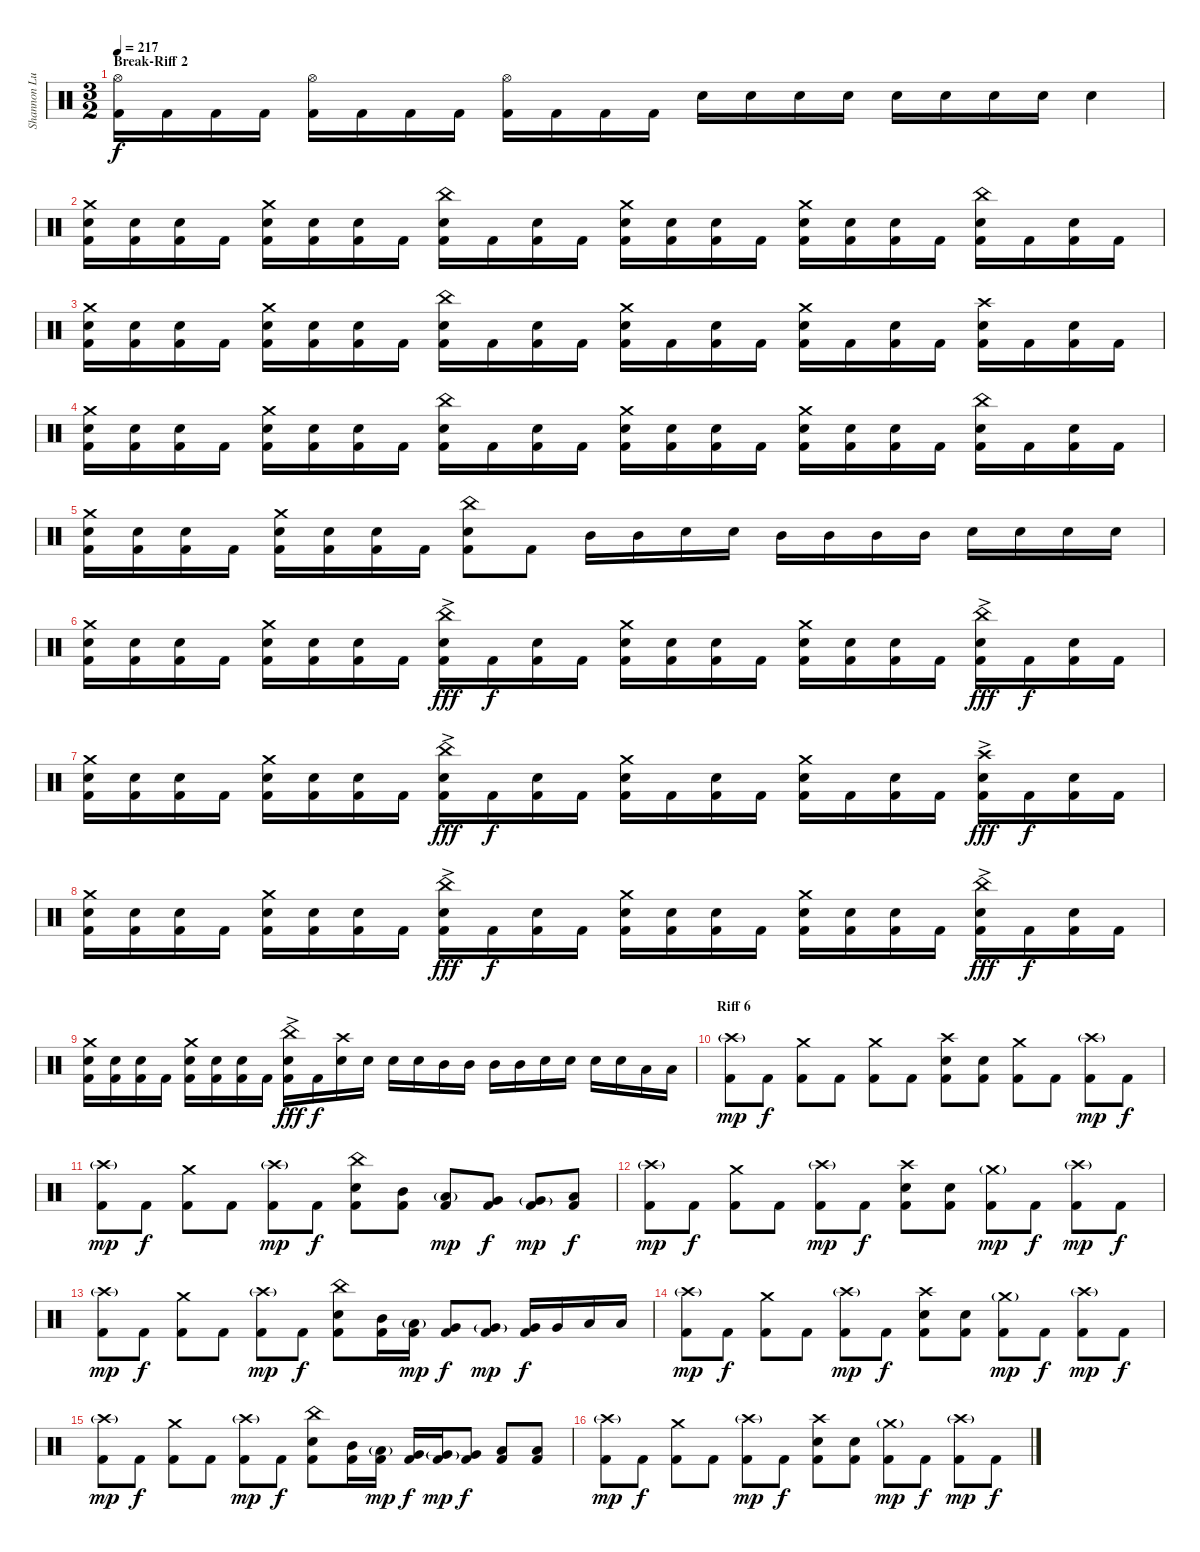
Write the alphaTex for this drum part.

\track ("Shannon Lucas (Drums)" "Shannon Lu") {instrument percussion}
\staff {score}
\articulation defaults
\ts (3 2)
\section ("" "Break-Riff 2")
\tempo 217
\clef neutral
\ks c
("Hi-Hat (open)" "Kick (hit) 2").16{dy f} "Kick (hit) 2".16 "Kick (hit) 2".16 "Kick (hit) 2".16 ("Hi-Hat (open)" "Kick (hit) 2").16 "Kick (hit) 2".16 "Kick (hit) 2".16 "Kick (hit) 2".16 ("Hi-Hat (open)" "Kick (hit) 2").16 "Kick (hit) 2".16 "Kick (hit) 2".16 "Kick (hit) 2".16 "Snare (hit) 2".16 "Snare (hit) 2".16 "Snare (hit) 2".16 "Snare (hit) 2".16 "Snare (hit) 2".16 "Snare (hit) 2".16 "Snare (hit) 2".16 "Snare (hit) 2".16 "Snare (hit) 2".4 |
("Crash medium (hit)" "Snare (hit) 2" "Kick (hit) 2").16 ("Snare (hit) 2" "Kick (hit) 2").16 ("Snare (hit) 2" "Kick (hit) 2").16 "Kick (hit) 2".16 ("Crash medium (hit)" "Snare (hit) 2" "Kick (hit) 2").16 ("Snare (hit) 2" "Kick (hit) 2").16 ("Snare (hit) 2" "Kick (hit) 2").16 "Kick (hit) 2".16 ("China (hit)" "Snare (hit) 2" "Kick (hit) 2").16 "Kick (hit) 2".16 ("Snare (hit) 2" "Kick (hit) 2").16 "Kick (hit) 2".16 ("Crash medium (hit)" "Snare (hit) 2" "Kick (hit) 2").16 ("Snare (hit) 2" "Kick (hit) 2").16 ("Snare (hit) 2" "Kick (hit) 2").16 "Kick (hit) 2".16 ("Crash medium (hit)" "Snare (hit) 2" "Kick (hit) 2").16 ("Snare (hit) 2" "Kick (hit) 2").16 ("Snare (hit) 2" "Kick (hit) 2").16 "Kick (hit) 2".16 ("China (hit)" "Snare (hit) 2" "Kick (hit) 2").16 "Kick (hit) 2".16 ("Snare (hit) 2" "Kick (hit) 2").16 "Kick (hit) 2".16 |
("Crash medium (hit)" "Snare (hit) 2" "Kick (hit) 2").16 ("Snare (hit) 2" "Kick (hit) 2").16 ("Snare (hit) 2" "Kick (hit) 2").16 "Kick (hit) 2".16 ("Crash medium (hit)" "Snare (hit) 2" "Kick (hit) 2").16 ("Snare (hit) 2" "Kick (hit) 2").16 ("Snare (hit) 2" "Kick (hit) 2").16 "Kick (hit) 2".16 ("China (hit)" "Snare (hit) 2" "Kick (hit) 2").16 "Kick (hit) 2".16 ("Snare (hit) 2" "Kick (hit) 2").16 "Kick (hit) 2".16 ("Crash medium (hit)" "Snare (hit) 2" "Kick (hit) 2").16 "Kick (hit) 2".16 ("Snare (hit) 2" "Kick (hit) 2").16 "Kick (hit) 2".16 ("Crash medium (hit)" "Snare (hit) 2" "Kick (hit) 2").16 "Kick (hit) 2".16 ("Snare (hit) 2" "Kick (hit) 2").16 "Kick (hit) 2".16 ("Crash high (hit)" "Snare (hit) 2" "Kick (hit) 2").16 "Kick (hit) 2".16 ("Snare (hit) 2" "Kick (hit) 2").16 "Kick (hit) 2".16 |
("Crash medium (hit)" "Snare (hit) 2" "Kick (hit) 2").16 ("Snare (hit) 2" "Kick (hit) 2").16 ("Snare (hit) 2" "Kick (hit) 2").16 "Kick (hit) 2".16 ("Crash medium (hit)" "Snare (hit) 2" "Kick (hit) 2").16 ("Snare (hit) 2" "Kick (hit) 2").16 ("Snare (hit) 2" "Kick (hit) 2").16 "Kick (hit) 2".16 ("China (hit)" "Snare (hit) 2" "Kick (hit) 2").16 "Kick (hit) 2".16 ("Snare (hit) 2" "Kick (hit) 2").16 "Kick (hit) 2".16 ("Crash medium (hit)" "Snare (hit) 2" "Kick (hit) 2").16 ("Snare (hit) 2" "Kick (hit) 2").16 ("Snare (hit) 2" "Kick (hit) 2").16 "Kick (hit) 2".16 ("Crash medium (hit)" "Snare (hit) 2" "Kick (hit) 2").16 ("Snare (hit) 2" "Kick (hit) 2").16 ("Snare (hit) 2" "Kick (hit) 2").16 "Kick (hit) 2".16 ("China (hit)" "Snare (hit) 2" "Kick (hit) 2").16 "Kick (hit) 2".16 ("Snare (hit) 2" "Kick (hit) 2").16 "Kick (hit) 2".16 |
("Crash medium (hit)" "Snare (hit) 2" "Kick (hit) 2").16 ("Snare (hit) 2" "Kick (hit) 2").16 ("Snare (hit) 2" "Kick (hit) 2").16 "Kick (hit) 2".16 ("Crash medium (hit)" "Snare (hit) 2" "Kick (hit) 2").16 ("Snare (hit) 2" "Kick (hit) 2").16 ("Snare (hit) 2" "Kick (hit) 2").16 "Kick (hit) 2".16 ("China (hit)" "Snare (hit) 2" "Kick (hit) 2").8 "Kick (hit) 2".8 "Mid Tom (hit)".16 "Mid Tom (hit)".16 "Snare (hit) 2".16 "Snare (hit) 2".16 "Mid Tom (hit)".16 "Mid Tom (hit)".16 "Mid Tom (hit)".16 "Mid Tom (hit)".16 "Snare (hit) 2".16 "Snare (hit) 2".16 "Snare (hit) 2".16 "Snare (hit) 2".16 |
("Crash medium (hit)" "Snare (hit) 2" "Kick (hit) 2").16 ("Snare (hit) 2" "Kick (hit) 2").16 ("Snare (hit) 2" "Kick (hit) 2").16 "Kick (hit) 2".16 ("Crash medium (hit)" "Snare (hit) 2" "Kick (hit) 2").16 ("Snare (hit) 2" "Kick (hit) 2").16 ("Snare (hit) 2" "Kick (hit) 2").16 "Kick (hit) 2".16 ("China (hit)"{ac} "Snare (hit) 2"{ac} "Kick (hit) 2"{ac}).16{dy fff} "Kick (hit) 2".16{dy f} ("Snare (hit) 2" "Kick (hit) 2").16 "Kick (hit) 2".16 ("Crash medium (hit)" "Snare (hit) 2" "Kick (hit) 2").16 ("Snare (hit) 2" "Kick (hit) 2").16 ("Snare (hit) 2" "Kick (hit) 2").16 "Kick (hit) 2".16 ("Crash medium (hit)" "Snare (hit) 2" "Kick (hit) 2").16 ("Snare (hit) 2" "Kick (hit) 2").16 ("Snare (hit) 2" "Kick (hit) 2").16 "Kick (hit) 2".16 ("China (hit)"{ac} "Snare (hit) 2"{ac} "Kick (hit) 2"{ac}).16{dy fff} "Kick (hit) 2".16{dy f} ("Snare (hit) 2" "Kick (hit) 2").16 "Kick (hit) 2".16 |
("Crash medium (hit)" "Snare (hit) 2" "Kick (hit) 2").16 ("Snare (hit) 2" "Kick (hit) 2").16 ("Snare (hit) 2" "Kick (hit) 2").16 "Kick (hit) 2".16 ("Crash medium (hit)" "Snare (hit) 2" "Kick (hit) 2").16 ("Snare (hit) 2" "Kick (hit) 2").16 ("Snare (hit) 2" "Kick (hit) 2").16 "Kick (hit) 2".16 ("China (hit)"{ac} "Snare (hit) 2"{ac} "Kick (hit) 2"{ac}).16{dy fff} "Kick (hit) 2".16{dy f} ("Snare (hit) 2" "Kick (hit) 2").16 "Kick (hit) 2".16 ("Crash medium (hit)" "Snare (hit) 2" "Kick (hit) 2").16 "Kick (hit) 2".16 ("Snare (hit) 2" "Kick (hit) 2").16 "Kick (hit) 2".16 ("Crash medium (hit)" "Snare (hit) 2" "Kick (hit) 2").16 "Kick (hit) 2".16 ("Snare (hit) 2" "Kick (hit) 2").16 "Kick (hit) 2".16 ("Crash high (hit)"{ac} "Snare (hit) 2"{ac} "Kick (hit) 2"{ac}).16{dy fff} "Kick (hit) 2".16{dy f} ("Snare (hit) 2" "Kick (hit) 2").16 "Kick (hit) 2".16 |
("Crash medium (hit)" "Snare (hit) 2" "Kick (hit) 2").16 ("Snare (hit) 2" "Kick (hit) 2").16 ("Snare (hit) 2" "Kick (hit) 2").16 "Kick (hit) 2".16 ("Crash medium (hit)" "Snare (hit) 2" "Kick (hit) 2").16 ("Snare (hit) 2" "Kick (hit) 2").16 ("Snare (hit) 2" "Kick (hit) 2").16 "Kick (hit) 2".16 ("China (hit)"{ac} "Snare (hit) 2"{ac} "Kick (hit) 2"{ac}).16{dy fff} "Kick (hit) 2".16{dy f} ("Snare (hit) 2" "Kick (hit) 2").16 "Kick (hit) 2".16 ("Crash medium (hit)" "Snare (hit) 2" "Kick (hit) 2").16 ("Snare (hit) 2" "Kick (hit) 2").16 ("Snare (hit) 2" "Kick (hit) 2").16 "Kick (hit) 2".16 ("Crash medium (hit)" "Snare (hit) 2" "Kick (hit) 2").16 ("Snare (hit) 2" "Kick (hit) 2").16 ("Snare (hit) 2" "Kick (hit) 2").16 "Kick (hit) 2".16 ("China (hit)"{ac} "Snare (hit) 2"{ac} "Kick (hit) 2"{ac}).16{dy fff} "Kick (hit) 2".16{dy f} ("Snare (hit) 2" "Kick (hit) 2").16 "Kick (hit) 2".16 |
("Crash medium (hit)" "Snare (hit) 2" "Kick (hit) 2").16 ("Snare (hit) 2" "Kick (hit) 2").16 ("Snare (hit) 2" "Kick (hit) 2").16 "Kick (hit) 2".16 ("Crash medium (hit)" "Snare (hit) 2" "Kick (hit) 2").16 ("Snare (hit) 2" "Kick (hit) 2").16 ("Snare (hit) 2" "Kick (hit) 2").16 "Kick (hit) 2".16 ("China (hit)"{ac} "Snare (hit) 2"{ac} "Kick (hit) 2"{ac}).16{dy fff} "Kick (hit) 2".16{dy f} ("Crash high (hit)" "Snare (hit) 2").16 "Snare (hit) 2".16 "Snare (hit) 2".16 "Snare (hit) 2".16 "Mid Tom (hit)".16 "Mid Tom (hit)".16 "Mid Tom (hit)".16 "Mid Tom (hit)".16 "Snare (hit) 2".16 "Snare (hit) 2".16 "Snare (hit) 2".16 "Snare (hit) 2".16 "Low Tom (hit)".16 "Low Tom (hit)".16 |
\section ("" "Riff 6")
("Crash high (hit)"{g} "Kick (hit) 2").8{dy mp} "Kick (hit) 2".8{dy f} ("Crash medium (hit)" "Kick (hit) 2").8 "Kick (hit) 2".8 ("Crash medium (hit)" "Kick (hit) 2").8 "Kick (hit) 2".8 ("Crash high (hit)" "Snare (hit) 2" "Kick (hit) 2").8 ("Snare (hit) 2" "Kick (hit) 2").8 ("Crash medium (hit)" "Kick (hit) 2").8 "Kick (hit) 2".8 ("Crash high (hit)"{g} "Kick (hit) 2").8{dy mp} "Kick (hit) 2".8{dy f} |
("Crash high (hit)"{g} "Kick (hit) 2").8{dy mp} "Kick (hit) 2".8{dy f} ("Crash medium (hit)" "Kick (hit) 2").8 "Kick (hit) 2".8 ("Crash high (hit)"{g} "Kick (hit) 2").8{dy mp} "Kick (hit) 2".8{dy f} ("China (hit)" "Snare (hit) 2" "Kick (hit) 2").8 ("Mid Tom (hit)" "Kick (hit) 2").8 ("Low Tom (hit)"{g} "Kick (hit) 2").8{dy mp} ("Very Low Tom (hit)" "Kick (hit) 2").8{dy f} ("Very Low Tom (hit)"{g} "Kick (hit) 2").8{dy mp} ("Low Floor Tom (hit)" "Kick (hit) 2").8{dy f} |
("Crash high (hit)"{g} "Kick (hit) 2").8{dy mp} "Kick (hit) 2".8{dy f} ("Crash medium (hit)" "Kick (hit) 2").8 "Kick (hit) 2".8 ("Crash high (hit)"{g} "Kick (hit) 2").8{dy mp} "Kick (hit) 2".8{dy f} ("Crash high (hit)" "Snare (hit) 2" "Kick (hit) 2").8 ("Snare (hit) 2" "Kick (hit) 2").8 ("Crash medium (hit)"{g} "Kick (hit) 2").8{dy mp} "Kick (hit) 2".8{dy f} ("Crash high (hit)"{g} "Kick (hit) 2").8{dy mp} "Kick (hit) 2".8{dy f} |
("Crash high (hit)"{g} "Kick (hit) 2").8{dy mp} "Kick (hit) 2".8{dy f} ("Crash medium (hit)" "Kick (hit) 2").8 "Kick (hit) 2".8 ("Crash high (hit)"{g} "Kick (hit) 2").8{dy mp} "Kick (hit) 2".8{dy f} ("China (hit)" "Snare (hit) 2" "Kick (hit) 2").8 ("Mid Tom (hit)" "Kick (hit) 2").16 ("Low Tom (hit)"{g} "Kick (hit) 2").16{dy mp} ("Very Low Tom (hit)" "Kick (hit) 2").8{dy f} ("Very Low Tom (hit)"{g} "Kick (hit) 2").8{dy mp} ("Very Low Tom (hit)" "Kick (hit) 2").16{dy f} "Very Low Tom (hit)".16 "Low Floor Tom (hit)".16 "Low Floor Tom (hit)".16 |
("Crash high (hit)"{g} "Kick (hit) 2").8{dy mp} "Kick (hit) 2".8{dy f} ("Crash medium (hit)" "Kick (hit) 2").8 "Kick (hit) 2".8 ("Crash high (hit)"{g} "Kick (hit) 2").8{dy mp} "Kick (hit) 2".8{dy f} ("Crash high (hit)" "Snare (hit) 2" "Kick (hit) 2").8 ("Snare (hit) 2" "Kick (hit) 2").8 ("Crash medium (hit)"{g} "Kick (hit) 2").8{dy mp} "Kick (hit) 2".8{dy f} ("Crash high (hit)"{g} "Kick (hit) 2").8{dy mp} "Kick (hit) 2".8{dy f} |
("Crash high (hit)"{g} "Kick (hit) 2").8{dy mp} "Kick (hit) 2".8{dy f} ("Crash medium (hit)" "Kick (hit) 2").8 "Kick (hit) 2".8 ("Crash high (hit)"{g} "Kick (hit) 2").8{dy mp} "Kick (hit) 2".8{dy f} ("China (hit)" "Snare (hit) 2" "Kick (hit) 2").8 ("Mid Tom (hit)" "Kick (hit) 2").16 ("Low Tom (hit)"{g} "Kick (hit) 2").16{dy mp} ("Very Low Tom (hit)" "Kick (hit) 2").16{dy f} ("Very Low Tom (hit)"{g} "Kick (hit) 2").16{dy mp} ("Very Low Tom (hit)" "Kick (hit) 2").8{dy f} ("Low Floor Tom (hit)" "Kick (hit) 2").8 ("Low Floor Tom (hit)" "Kick (hit) 2").8 |
("Crash high (hit)"{g} "Kick (hit) 2").8{dy mp} "Kick (hit) 2".8{dy f} ("Crash medium (hit)" "Kick (hit) 2").8 "Kick (hit) 2".8 ("Crash high (hit)"{g} "Kick (hit) 2").8{dy mp} "Kick (hit) 2".8{dy f} ("Crash high (hit)" "Snare (hit) 2" "Kick (hit) 2").8 ("Snare (hit) 2" "Kick (hit) 2").8 ("Crash medium (hit)"{g} "Kick (hit) 2").8{dy mp} "Kick (hit) 2".8{dy f} ("Crash high (hit)"{g} "Kick (hit) 2").8{dy mp} "Kick (hit) 2".8{dy f}
